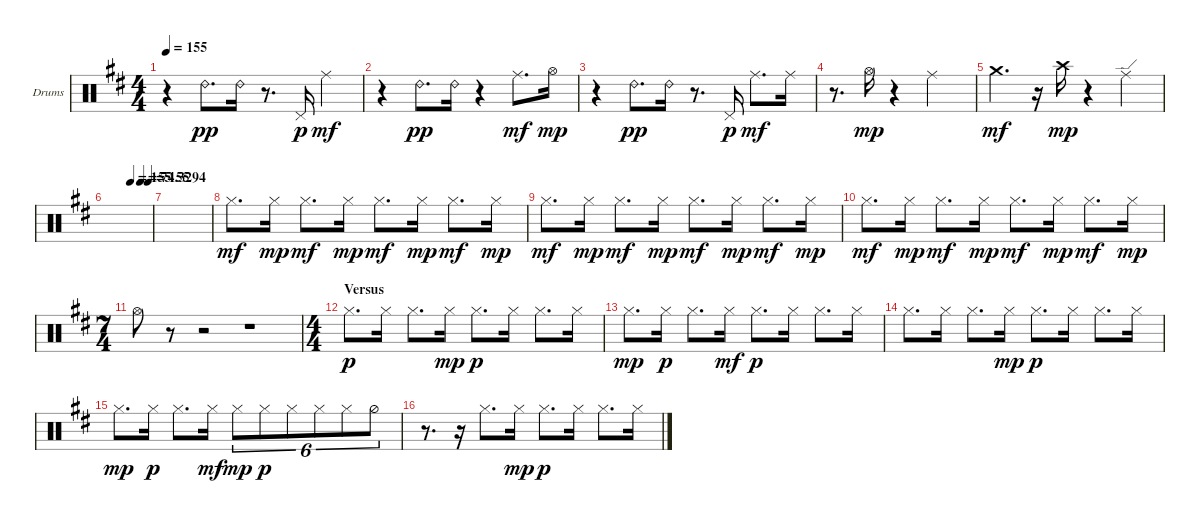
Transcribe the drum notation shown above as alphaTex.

\bracketExtendMode groupsimilarinstruments
\firstSystemTrackNameOrientation horizontal
\otherSystemsTrackNameOrientation horizontal
\track ("Perc" "Drums") {instrument percussion}
\staff {score}
\articulation defaults
\ts (4 4)
\tempo 155
\clef neutral
\ks d
r.4{dy mp} "Ride (bell) 2".8{d dy pp} "Ride (bell) 2".16 r.8{d} "Pedal Hi-Hat (hit)".16{dy p} "Ride (middle)".4{dy mf} |
r.4 "Ride (bell) 2".8{d dy pp} "Ride (bell) 2".16 r.4 "Ride (middle)".8{d dy mf} "Hi-Hat (open)".16{dy mp} |
r.4 "Ride (bell) 2".8{d dy pp} "Ride (bell) 2".16 r.8{d} "Pedal Hi-Hat (hit)".16{dy p} "Ride (middle)".8{d dy mf} "Ride (middle)".16 |
r.8{d} "Hi-Hat (open)".16{dy mp} r.4 "Ride (middle)".2 |
"Crash medium (hit)".4{d dy mf} r.16 "Crash high (hit)".16{dy mp} r.4 "Ride (edge)".4 |
\tempo (155 0.53125)
\tempo (74.3294 0.75)
\tempo (155 0.925)
|
|
"Hi-Hat (closed)".8{d dy mf} "Hi-Hat (closed)".16{dy mp} "Hi-Hat (closed)".8{d dy mf} "Hi-Hat (closed)".16{dy mp} "Hi-Hat (closed)".8{d dy mf} "Hi-Hat (closed)".16{dy mp} "Hi-Hat (closed)".8{d dy mf} "Hi-Hat (closed)".16{dy mp} |
"Hi-Hat (closed)".8{d dy mf} "Hi-Hat (closed)".16{dy mp} "Hi-Hat (closed)".8{d dy mf} "Hi-Hat (closed)".16{dy mp} "Hi-Hat (closed)".8{d dy mf} "Hi-Hat (closed)".16{dy mp} "Hi-Hat (closed)".8{d dy mf} "Hi-Hat (closed)".16{dy mp} |
"Hi-Hat (closed)".8{d dy mf} "Hi-Hat (closed)".16{dy mp} "Hi-Hat (closed)".8{d dy mf} "Hi-Hat (closed)".16{dy mp} "Hi-Hat (closed)".8{d dy mf} "Hi-Hat (closed)".16{dy mp} "Hi-Hat (closed)".8{d dy mf} "Hi-Hat (closed)".16{dy mp} |
\ts (7 4)
"Hi-Hat (open)".8 r.8 r.2 r.1 |
\ts (4 4)
\section ("" "Versus")
"Hi-Hat (closed)".8{d dy p} "Hi-Hat (closed)".16 "Hi-Hat (closed)".8{d} "Hi-Hat (closed)".16{dy mp} "Hi-Hat (closed)".8{d dy p} "Hi-Hat (closed)".16 "Hi-Hat (closed)".8{d} "Hi-Hat (closed)".16 |
"Hi-Hat (closed)".8{d dy mp} "Hi-Hat (closed)".16{dy p} "Hi-Hat (closed)".8{d} "Hi-Hat (closed)".16{dy mf} "Hi-Hat (closed)".8{d dy p} "Hi-Hat (closed)".16 "Hi-Hat (closed)".8{d} "Hi-Hat (closed)".16 |
"Hi-Hat (closed)".8{d} "Hi-Hat (closed)".16 "Hi-Hat (closed)".8{d} "Hi-Hat (closed)".16{dy mp} "Hi-Hat (closed)".8{d dy p} "Hi-Hat (closed)".16 "Hi-Hat (closed)".8{d} "Hi-Hat (closed)".16 |
"Hi-Hat (closed)".8{d dy mp} "Hi-Hat (closed)".16{dy p} "Hi-Hat (closed)".8{d} "Hi-Hat (closed)".16{dy mf} "Hi-Hat (closed)".8{tu (6 4) dy mp} "Hi-Hat (closed)".8{tu (6 4) dy p} "Hi-Hat (closed)".8{tu (6 4)} "Hi-Hat (closed)".8{tu (6 4)} "Hi-Hat (closed)".8{tu (6 4)} "Hi-Hat (half)".8{tu (6 4)} |
r.8{d} r.16 "Hi-Hat (closed)".8{d} "Hi-Hat (closed)".16{dy mp} "Hi-Hat (closed)".8{d dy p} "Hi-Hat (closed)".16 "Hi-Hat (closed)".8{d} "Hi-Hat (closed)".16
